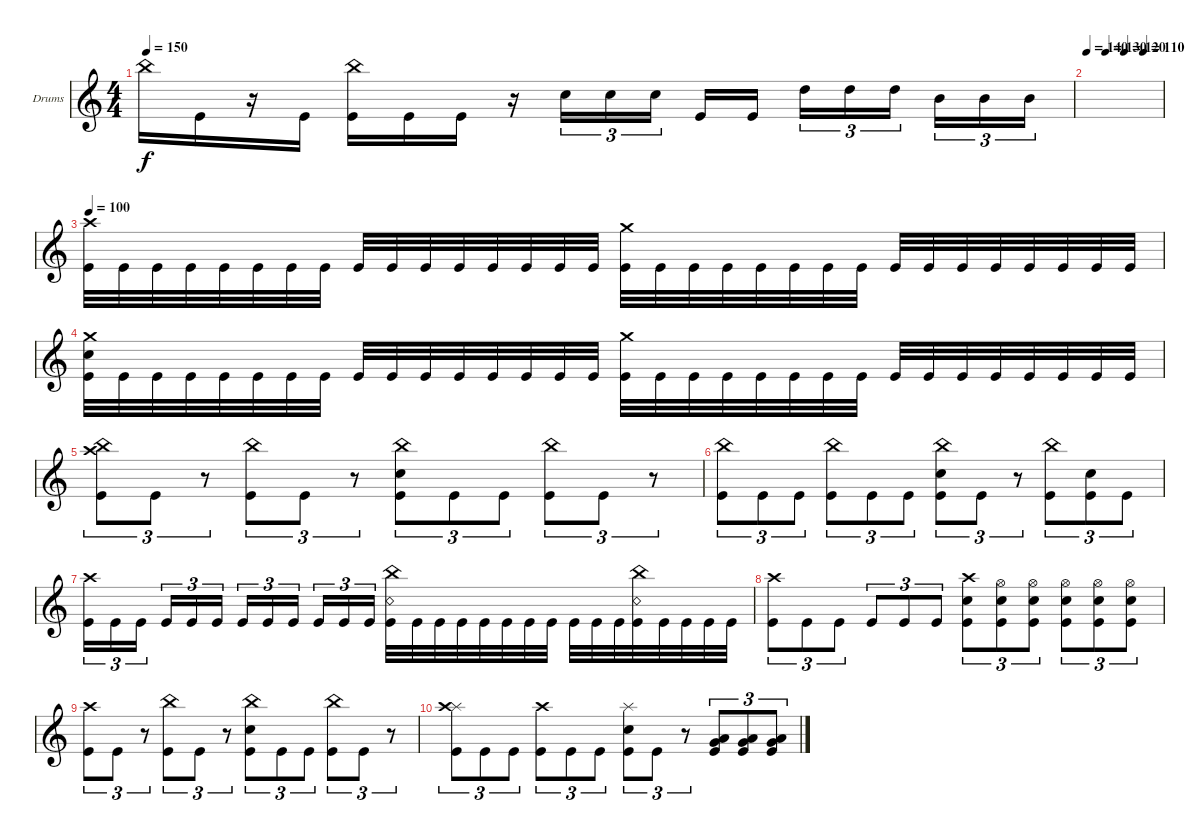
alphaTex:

\defaultSystemsLayout 4
\bracketExtendMode groupsimilarinstruments
\firstSystemTrackNameOrientation horizontal
\otherSystemsTrackNameOrientation horizontal
\track ("Drums" "Drums") {instrument percussion}
\staff {score}
\articulation defaults
\ts (4 4)
\tempo 150
\clef g2
\ks c "China (hit)".16{dy f} "Kick (hit)".16
r.16 "Kick (hit)".16 ("Kick (hit)" "China (hit)").16 "Kick (hit)".16 "Kick (hit)".16 r.16 "Snare (hit) 2".16{tu (3 2)} "Snare (hit) 2".16{tu (3 2)} "Snare (hit) 2".16{tu (3 2)} "Kick (hit)".16 "Kick (hit)".16 "High Tom (hit)".16{tu (3 2)} "High Tom (hit)".16{tu (3 2)} "High Tom (hit)".16{tu (3 2)} "Mid Tom (hit)".16{tu (3 2)} "Mid Tom (hit)".16{tu (3 2)} "Mid Tom (hit)".16{tu (3 2)} |
\tempo 140
\tempo (130 0.25)
\tempo (120 0.5)
\tempo (110 0.75)
|
\tempo 100
("Kick (hit)" "Crash high (hit)").32 "Kick (hit)".32 "Kick (hit)".32 "Kick (hit)".32 "Kick (hit)".32 "Kick (hit)".32 "Kick (hit)".32 "Kick (hit)".32 "Kick (hit)".32 "Kick (hit)".32 "Kick (hit)".32 "Kick (hit)".32 "Kick (hit)".32 "Kick (hit)".32 "Kick (hit)".32 "Kick (hit)".32 ("Kick (hit)" "Crash medium (hit)").32 "Kick (hit)".32 "Kick (hit)".32 "Kick (hit)".32 "Kick (hit)".32 "Kick (hit)".32 "Kick (hit)".32 "Kick (hit)".32 "Kick (hit)".32 "Kick (hit)".32 "Kick (hit)".32 "Kick (hit)".32 "Kick (hit)".32 "Kick (hit)".32 "Kick (hit)".32 "Kick (hit)".32 |
("Kick (hit)" "Crash medium (hit)" "Snare (hit) 2").32 "Kick (hit)".32 "Kick (hit)".32 "Kick (hit)".32 "Kick (hit)".32 "Kick (hit)".32 "Kick (hit)".32 "Kick (hit)".32 "Kick (hit)".32 "Kick (hit)".32 "Kick (hit)".32 "Kick (hit)".32 "Kick (hit)".32 "Kick (hit)".32 "Kick (hit)".32 "Kick (hit)".32 ("Kick (hit)" "Crash medium (hit)").32 "Kick (hit)".32 "Kick (hit)".32 "Kick (hit)".32 "Kick (hit)".32 "Kick (hit)".32 "Kick (hit)".32 "Kick (hit)".32 "Kick (hit)".32 "Kick (hit)".32 "Kick (hit)".32 "Kick (hit)".32 "Kick (hit)".32 "Kick (hit)".32 "Kick (hit)".32 "Kick (hit)".32 |
("Kick (hit)" "Crash high (hit)" "China (hit)").8{tu (3 2)} "Kick (hit)".8{tu (3 2)} r.8{tu (3 2)} ("Kick (hit)" "China (hit)").8{tu (3 2)} "Kick (hit)".8{tu (3 2)} r.8{tu (3 2)} ("Kick (hit)" "China (hit)" "Snare (hit) 2").8{tu (3 2)} "Kick (hit)".8{tu (3 2)} "Kick (hit)".8{tu (3 2)} ("Kick (hit)" "China (hit)").8{tu (3 2)} "Kick (hit)".8{tu (3 2)} r.8{tu (3 2)} |
("Kick (hit)" "China (hit)").8{tu (3 2)} "Kick (hit)".8{tu (3 2)} "Kick (hit)".8{tu (3 2)} ("Kick (hit)" "China (hit)").8{tu (3 2)} "Kick (hit)".8{tu (3 2)} "Kick (hit)".8{tu (3 2)} ("Kick (hit)" "China (hit)" "Snare (hit) 2").8{tu (3 2)} "Kick (hit)".8{tu (3 2)} r.8{tu (3 2)} ("Kick (hit)" "China (hit)").8{tu (3 2)} ("Kick (hit)" "Snare (hit) 2").8{tu (3 2)} "Kick (hit)".8{tu (3 2)} |
("Kick (hit)" "Crash high (hit)").16{tu (3 2)} "Kick (hit)".16{tu (3 2)} "Kick (hit)".16{tu (3 2)} "Kick (hit)".16{tu (3 2)} "Kick (hit)".16{tu (3 2)} "Kick (hit)".16{tu (3 2)} "Kick (hit)".16{tu (3 2)} "Kick (hit)".16{tu (3 2)} "Kick (hit)".16{tu (3 2)} "Kick (hit)".16{tu (3 2)} "Kick (hit)".16{tu (3 2)} "Kick (hit)".16{tu (3 2)} ("Kick (hit)" "Snare (rim shot)" "China (hit)").32 "Kick (hit)".32 "Kick (hit)".32 "Kick (hit)".32 "Kick (hit)".32 "Kick (hit)".32 "Kick (hit)".32 "Kick (hit)".32 "Kick (hit)".32 "Kick (hit)".32 "Kick (hit)".32 ("Kick (hit)" "Snare (rim shot)" "China (hit)").32 "Kick (hit)".32 "Kick (hit)".32 "Kick (hit)".32 "Kick (hit)".32 |
("Kick (hit)" "Crash high (hit)").8{tu (3 2)} "Kick (hit)".8{tu (3 2)} "Kick (hit)".8{tu (3 2)} "Kick (hit)".8{tu (3 2)} "Kick (hit)".8{tu (3 2)} "Kick (hit)".8{tu (3 2)} ("Kick (hit)" "Crash high (hit)" "Snare (hit) 2").8{tu (3 2)} ("Kick (hit)" "Snare (hit) 2" "Hi-Hat (open)").8{tu (3 2)} ("Kick (hit)" "Snare (hit) 2" "Hi-Hat (open)").8{tu (3 2)} ("Kick (hit)" "Snare (hit) 2" "Hi-Hat (open)").8{tu (3 2)} ("Kick (hit)" "Snare (hit) 2" "Hi-Hat (open)").8{tu (3 2)} ("Kick (hit)" "Snare (hit) 2" "Hi-Hat (open)").8{tu (3 2)} |
("Kick (hit)" "Crash high (hit)").8{tu (3 2)} "Kick (hit)".8{tu (3 2)} r.8{tu (3 2)} ("Kick (hit)" "China (hit)").8{tu (3 2)} "Kick (hit)".8{tu (3 2)} r.8{tu (3 2)} ("Kick (hit)" "China (hit)" "Snare (hit) 2").8{tu (3 2)} "Kick (hit)".8{tu (3 2)} "Kick (hit)".8{tu (3 2)} ("Kick (hit)" "China (hit)").8{tu (3 2)} "Kick (hit)".8{tu (3 2)} r.8{tu (3 2)} |
("Kick (hit)" "Splash (hit)" "Crash high (hit)").8{tu (3 2)} "Kick (hit)".8{tu (3 2)} "Kick (hit)".8{tu (3 2)} ("Kick (hit)" "Crash high (hit)").8{tu (3 2)} "Kick (hit)".8{tu (3 2)} "Kick (hit)".8{tu (3 2)} ("Kick (hit)" "Snare (hit) 2" "Splash (hit)").8{tu (3 2)} "Kick (hit)".8{tu (3 2)} r.8{tu (3 2)} ("Kick (hit)" "Very Low Tom (hit)" "Low Tom (hit)").8{tu (3 2)} ("Kick (hit)" "Very Low Tom (hit)" "Low Tom (hit)").8{tu (3 2)} ("Kick (hit)" "Very Low Tom (hit)" "Low Tom (hit)").8{tu (3 2)}
